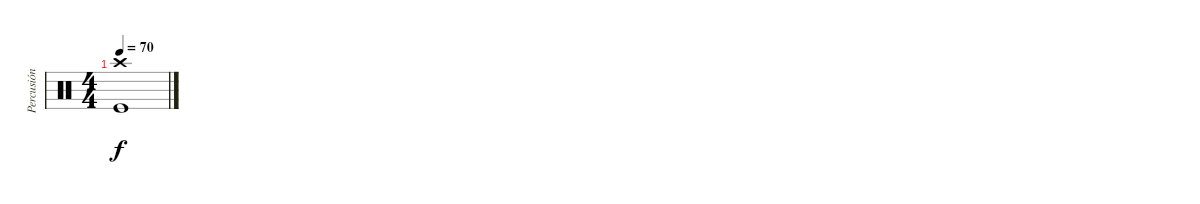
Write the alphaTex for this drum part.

\track ("Percusión" "Percusión") {instrument percussion}
\staff {score}
\articulation defaults
\ts (4 4)
\tempo 70
\clef neutral
\ks c
("Kick (hit)" "Crash high (hit)").1{dy f}
